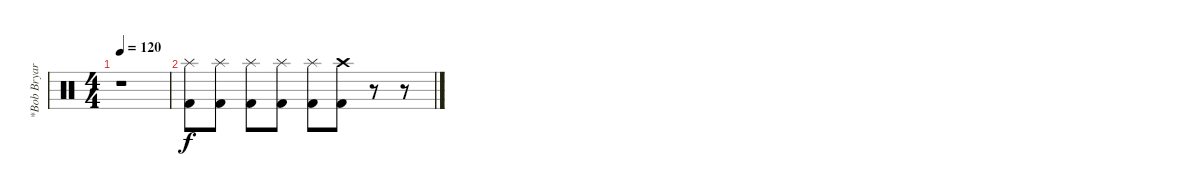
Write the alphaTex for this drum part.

\track ("*Bob Bryar" "*Bob Bryar") {instrument percussion}
\staff {score}
\articulation defaults
\ts (4 4)
\tempo 120
\clef neutral
\ks c
r.1{dy f} |
("Splash (hit)" "Kick (hit) 2").8 ("Splash (hit)" "Kick (hit) 2").8 ("Splash (hit)" "Kick (hit) 2").8 ("Splash (hit)" "Kick (hit) 2").8 ("Splash (hit)" "Kick (hit) 2").8 ("Crash high (hit)" "Kick (hit) 2").8 r.8 r.8
